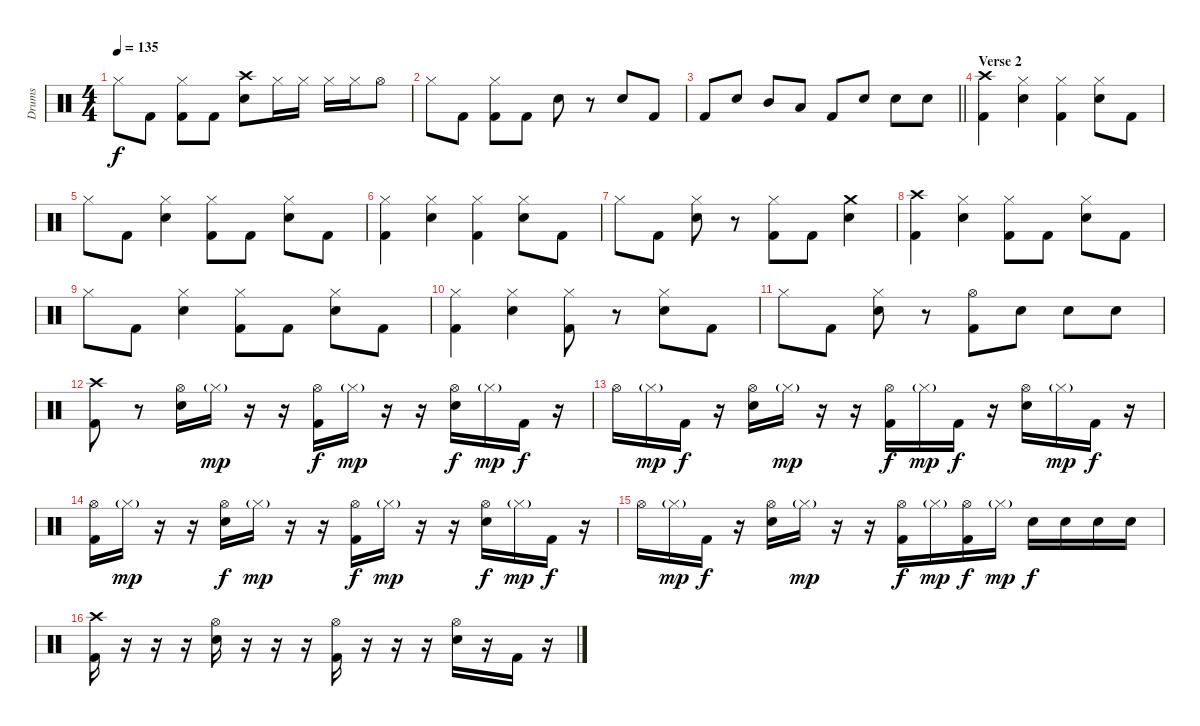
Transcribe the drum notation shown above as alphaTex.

\track ("Drums" "Drums") {instrument percussion}
\staff {score}
\articulation defaults
\ts (4 4)
\tempo 135
\clef neutral
\ks c "Hi-Hat (closed)".8{dy f} "Kick (hit) 2".8
("Hi-Hat (closed)" "Kick (hit) 2").8 "Kick (hit) 2".8 ("Crash high (hit)" "Electric Snare (hit)").8 "Hi-Hat (closed)".16 "Hi-Hat (closed)".16 "Hi-Hat (closed)".16 "Hi-Hat (closed)".16 "Hi-Hat (open)".8 |
"Hi-Hat (closed)".8 "Kick (hit) 2".8 ("Hi-Hat (closed)" "Kick (hit) 2").8 "Kick (hit) 2".8 "Electric Snare (hit)".8 r.8 "Electric Snare (hit)".8 "Kick (hit) 2".8 |
\barLineRight lightlight "Kick (hit) 2".8 "Electric Snare (hit)".8 "Mid Tom (hit)".8 "Low Tom (hit)".8 "Kick (hit) 2".8 "Electric Snare (hit)".8 "Electric Snare (hit)".8 "Electric Snare (hit)".8
|
\section ("" "Verse 2")
("Crash high (hit)" "Kick (hit) 2").4 ("Hi-Hat (closed)" "Electric Snare (hit)").4 ("Hi-Hat (closed)" "Kick (hit) 2").4 ("Hi-Hat (closed)" "Electric Snare (hit)").8 "Kick (hit) 2".8 |
"Hi-Hat (closed)".8 "Kick (hit) 2".8 ("Hi-Hat (closed)" "Electric Snare (hit)").4 ("Hi-Hat (closed)" "Kick (hit) 2").8 "Kick (hit) 2".8 ("Hi-Hat (closed)" "Electric Snare (hit)").8 "Kick (hit) 2".8 |
("Hi-Hat (closed)" "Kick (hit) 2").4 ("Hi-Hat (closed)" "Electric Snare (hit)").4 ("Hi-Hat (closed)" "Kick (hit) 2").4 ("Hi-Hat (closed)" "Electric Snare (hit)").8 "Kick (hit) 2".8 |
"Hi-Hat (closed)".8 "Kick (hit) 2".8 ("Hi-Hat (closed)" "Electric Snare (hit)").8 r.8 ("Hi-Hat (closed)" "Kick (hit) 2").8 "Kick (hit) 2".8 ("Crash medium (hit)" "Electric Snare (hit)").4 |
("Crash high (hit)" "Kick (hit) 2").4 ("Hi-Hat (closed)" "Electric Snare (hit)").4 ("Hi-Hat (closed)" "Kick (hit) 2").8 "Kick (hit) 2".8 ("Hi-Hat (closed)" "Electric Snare (hit)").8 "Kick (hit) 2".8 |
"Hi-Hat (closed)".8 "Kick (hit) 2".8 ("Hi-Hat (closed)" "Electric Snare (hit)").4 ("Hi-Hat (closed)" "Kick (hit) 2").8 "Kick (hit) 2".8 ("Hi-Hat (closed)" "Electric Snare (hit)").8 "Kick (hit) 2".8 |
("Hi-Hat (closed)" "Kick (hit) 2").4 ("Hi-Hat (closed)" "Electric Snare (hit)").4 ("Hi-Hat (closed)" "Kick (hit) 2").8 r.8 ("Hi-Hat (closed)" "Electric Snare (hit)").8 "Kick (hit) 2".8 |
"Hi-Hat (closed)".8 "Kick (hit) 2".8 ("Hi-Hat (closed)" "Electric Snare (hit)").8 r.8 ("Hi-Hat (open)" "Kick (hit) 2").8 "Electric Snare (hit)".8 "Electric Snare (hit)".8 "Electric Snare (hit)".8 |
("Crash high (hit)" "Kick (hit) 2").8 r.8 ("Hi-Hat (open)" "Electric Snare (hit)").16 "Hi-Hat (closed)"{g}.16{dy mp} r.16 r.16 ("Hi-Hat (open)" "Kick (hit) 2").16{dy f} "Hi-Hat (closed)"{g}.16{dy mp} r.16 r.16 ("Hi-Hat (open)" "Electric Snare (hit)").16{dy f} "Hi-Hat (closed)"{g}.16{dy mp} "Kick (hit) 2".16{dy f} r.16 |
"Hi-Hat (open)".16 "Hi-Hat (closed)"{g}.16{dy mp} "Kick (hit) 2".16{dy f} r.16 ("Hi-Hat (open)" "Electric Snare (hit)").16 "Hi-Hat (closed)"{g}.16{dy mp} r.16 r.16 ("Hi-Hat (open)" "Kick (hit) 2").16{dy f} "Hi-Hat (closed)"{g}.16{dy mp} "Kick (hit) 2".16{dy f} r.16 ("Hi-Hat (open)" "Electric Snare (hit)").16 "Hi-Hat (closed)"{g}.16{dy mp} "Kick (hit) 2".16{dy f} r.16 |
("Hi-Hat (open)" "Kick (hit) 2").16 "Hi-Hat (closed)"{g}.16{dy mp} r.16 r.16 ("Hi-Hat (open)" "Electric Snare (hit)").16{dy f} "Hi-Hat (closed)"{g}.16{dy mp} r.16 r.16 ("Hi-Hat (open)" "Kick (hit) 2").16{dy f} "Hi-Hat (closed)"{g}.16{dy mp} r.16 r.16 ("Hi-Hat (open)" "Electric Snare (hit)").16{dy f} "Hi-Hat (closed)"{g}.16{dy mp} "Kick (hit) 2".16{dy f} r.16 |
"Hi-Hat (open)".16 "Hi-Hat (closed)"{g}.16{dy mp} "Kick (hit) 2".16{dy f} r.16 ("Hi-Hat (open)" "Electric Snare (hit)").16 "Hi-Hat (closed)"{g}.16{dy mp} r.16 r.16 ("Hi-Hat (open)" "Kick (hit) 2").16{dy f} "Hi-Hat (closed)"{g}.16{dy mp} ("Hi-Hat (open)" "Kick (hit) 2").16{dy f} "Hi-Hat (closed)"{g}.16{dy mp} "Electric Snare (hit)".16{dy f} "Electric Snare (hit)".16 "Electric Snare (hit)".16 "Electric Snare (hit)".16 |
("Crash high (hit)" "Kick (hit) 2").16 r.16 r.16 r.16 ("Hi-Hat (open)" "Electric Snare (hit)").16 r.16 r.16 r.16 ("Hi-Hat (open)" "Kick (hit) 2").16 r.16 r.16 r.16 ("Hi-Hat (open)" "Electric Snare (hit)").16 r.16 "Kick (hit) 2".16 r.16
